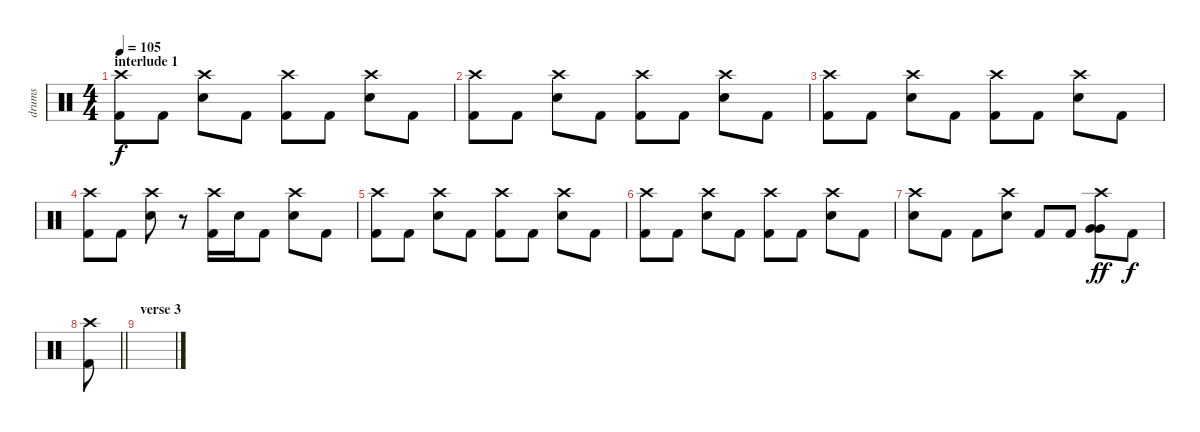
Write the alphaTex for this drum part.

\track ("drums" "drums") {instrument percussion}
\staff {score}
\articulation defaults
\ts (4 4)
\section ("" "interlude 1")
\tempo 105
\clef neutral
\ks c
("Crash high (hit)" "Kick (hit) 2").8{dy f} "Kick (hit) 2".8 ("Crash high (hit)" "Electric Snare (hit)").8 "Kick (hit) 2".8 ("Crash high (hit)" "Kick (hit) 2").8 "Kick (hit) 2".8 ("Crash high (hit)" "Electric Snare (hit)").8 "Kick (hit) 2".8 |
("Crash high (hit)" "Kick (hit) 2").8 "Kick (hit) 2".8 ("Crash high (hit)" "Electric Snare (hit)").8 "Kick (hit) 2".8 ("Crash high (hit)" "Kick (hit) 2").8 "Kick (hit) 2".8 ("Crash high (hit)" "Electric Snare (hit)").8 "Kick (hit) 2".8 |
("Crash high (hit)" "Kick (hit) 2").8 "Kick (hit) 2".8 ("Crash high (hit)" "Electric Snare (hit)").8 "Kick (hit) 2".8 ("Crash high (hit)" "Kick (hit) 2").8 "Kick (hit) 2".8 ("Crash high (hit)" "Electric Snare (hit)").8 "Kick (hit) 2".8 |
("Crash high (hit)" "Kick (hit) 2").8 "Kick (hit) 2".8 ("Crash high (hit)" "Electric Snare (hit)").8 r.8 ("Crash high (hit)" "Kick (hit) 2").16 "Electric Snare (hit)".16 "Kick (hit) 2".8 ("Crash high (hit)" "Electric Snare (hit)").8 "Kick (hit) 2".8 |
("Crash high (hit)" "Kick (hit) 2").8 "Kick (hit) 2".8 ("Crash high (hit)" "Electric Snare (hit)").8 "Kick (hit) 2".8 ("Crash high (hit)" "Kick (hit) 2").8 "Kick (hit) 2".8 ("Crash high (hit)" "Electric Snare (hit)").8 "Kick (hit) 2".8 |
("Crash high (hit)" "Kick (hit) 2").8 "Kick (hit) 2".8 ("Crash high (hit)" "Electric Snare (hit)").8 "Kick (hit) 2".8 ("Crash high (hit)" "Kick (hit) 2").8 "Kick (hit) 2".8 ("Crash high (hit)" "Electric Snare (hit)").8 "Kick (hit) 2".8 |
("Crash high (hit)" "Electric Snare (hit)").8 "Kick (hit) 2".8 "Kick (hit) 2".8 ("Crash high (hit)" "Electric Snare (hit)").8 "Kick (hit) 2".8 "Kick (hit) 2".8 ("Crash high (hit)" "Very Low Tom (hit)" "Very Low Tom (hit)").8{dy ff} "Kick (hit) 2".8{dy f} |
\barLineRight lightlight
("Crash high (hit)" "Kick (hit) 2").8 |
\section ("" "verse 3")
